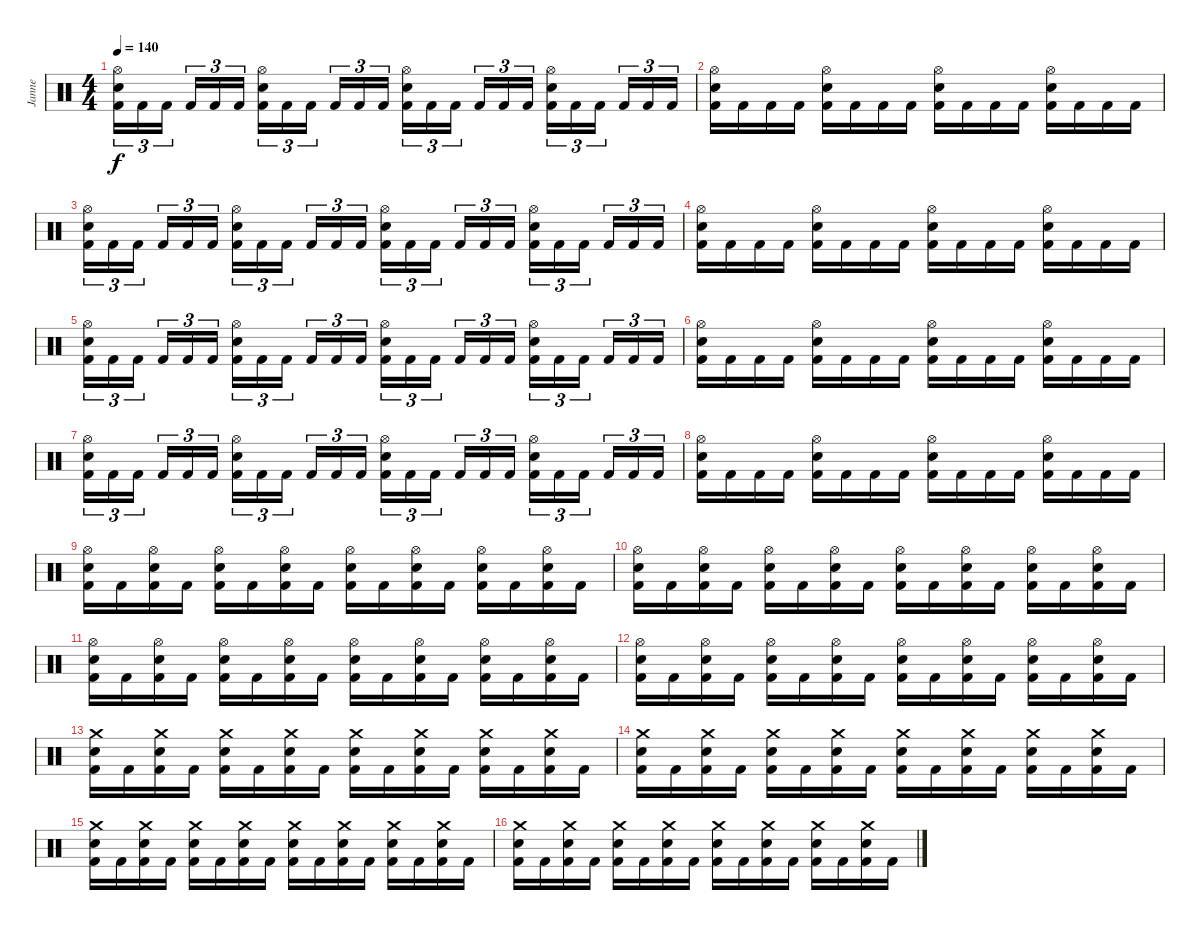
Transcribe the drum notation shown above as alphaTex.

\track ("Janne" "Janne") {instrument percussion}
\staff {score}
\articulation defaults
\ts (4 4)
\tempo 140
\clef neutral
\ks c
("Hi-Hat (open)" "Electric Snare (hit)" "Kick (hit) 2").16{tu (3 2) dy f} "Kick (hit) 2".16{tu (3 2)} "Kick (hit) 2".16{tu (3 2)} "Kick (hit) 2".16{tu (3 2)} "Kick (hit) 2".16{tu (3 2)} "Kick (hit) 2".16{tu (3 2)} ("Hi-Hat (open)" "Electric Snare (hit)" "Kick (hit) 2").16{tu (3 2)} "Kick (hit) 2".16{tu (3 2)} "Kick (hit) 2".16{tu (3 2)} "Kick (hit) 2".16{tu (3 2)} "Kick (hit) 2".16{tu (3 2)} "Kick (hit) 2".16{tu (3 2)} ("Hi-Hat (open)" "Electric Snare (hit)" "Kick (hit) 2").16{tu (3 2)} "Kick (hit) 2".16{tu (3 2)} "Kick (hit) 2".16{tu (3 2)} "Kick (hit) 2".16{tu (3 2)} "Kick (hit) 2".16{tu (3 2)} "Kick (hit) 2".16{tu (3 2)} ("Hi-Hat (open)" "Electric Snare (hit)" "Kick (hit) 2").16{tu (3 2)} "Kick (hit) 2".16{tu (3 2)} "Kick (hit) 2".16{tu (3 2)} "Kick (hit) 2".16{tu (3 2)} "Kick (hit) 2".16{tu (3 2)} "Kick (hit) 2".16{tu (3 2)} |
("Hi-Hat (open)" "Electric Snare (hit)" "Kick (hit) 2").16 "Kick (hit) 2".16 "Kick (hit) 2".16 "Kick (hit) 2".16 ("Hi-Hat (open)" "Electric Snare (hit)" "Kick (hit) 2").16 "Kick (hit) 2".16 "Kick (hit) 2".16 "Kick (hit) 2".16 ("Hi-Hat (open)" "Electric Snare (hit)" "Kick (hit) 2").16 "Kick (hit) 2".16 "Kick (hit) 2".16 "Kick (hit) 2".16 ("Hi-Hat (open)" "Electric Snare (hit)" "Kick (hit) 2").16 "Kick (hit) 2".16 "Kick (hit) 2".16 "Kick (hit) 2".16 |
("Hi-Hat (open)" "Electric Snare (hit)" "Kick (hit) 2").16{tu (3 2)} "Kick (hit) 2".16{tu (3 2)} "Kick (hit) 2".16{tu (3 2)} "Kick (hit) 2".16{tu (3 2)} "Kick (hit) 2".16{tu (3 2)} "Kick (hit) 2".16{tu (3 2)} ("Hi-Hat (open)" "Electric Snare (hit)" "Kick (hit) 2").16{tu (3 2)} "Kick (hit) 2".16{tu (3 2)} "Kick (hit) 2".16{tu (3 2)} "Kick (hit) 2".16{tu (3 2)} "Kick (hit) 2".16{tu (3 2)} "Kick (hit) 2".16{tu (3 2)} ("Hi-Hat (open)" "Electric Snare (hit)" "Kick (hit) 2").16{tu (3 2)} "Kick (hit) 2".16{tu (3 2)} "Kick (hit) 2".16{tu (3 2)} "Kick (hit) 2".16{tu (3 2)} "Kick (hit) 2".16{tu (3 2)} "Kick (hit) 2".16{tu (3 2)} ("Hi-Hat (open)" "Electric Snare (hit)" "Kick (hit) 2").16{tu (3 2)} "Kick (hit) 2".16{tu (3 2)} "Kick (hit) 2".16{tu (3 2)} "Kick (hit) 2".16{tu (3 2)} "Kick (hit) 2".16{tu (3 2)} "Kick (hit) 2".16{tu (3 2)} |
("Hi-Hat (open)" "Electric Snare (hit)" "Kick (hit) 2").16 "Kick (hit) 2".16 "Kick (hit) 2".16 "Kick (hit) 2".16 ("Hi-Hat (open)" "Electric Snare (hit)" "Kick (hit) 2").16 "Kick (hit) 2".16 "Kick (hit) 2".16 "Kick (hit) 2".16 ("Hi-Hat (open)" "Electric Snare (hit)" "Kick (hit) 2").16 "Kick (hit) 2".16 "Kick (hit) 2".16 "Kick (hit) 2".16 ("Hi-Hat (open)" "Electric Snare (hit)" "Kick (hit) 2").16 "Kick (hit) 2".16 "Kick (hit) 2".16 "Kick (hit) 2".16 |
("Hi-Hat (open)" "Electric Snare (hit)" "Kick (hit) 2").16{tu (3 2)} "Kick (hit) 2".16{tu (3 2)} "Kick (hit) 2".16{tu (3 2)} "Kick (hit) 2".16{tu (3 2)} "Kick (hit) 2".16{tu (3 2)} "Kick (hit) 2".16{tu (3 2)} ("Hi-Hat (open)" "Electric Snare (hit)" "Kick (hit) 2").16{tu (3 2)} "Kick (hit) 2".16{tu (3 2)} "Kick (hit) 2".16{tu (3 2)} "Kick (hit) 2".16{tu (3 2)} "Kick (hit) 2".16{tu (3 2)} "Kick (hit) 2".16{tu (3 2)} ("Hi-Hat (open)" "Electric Snare (hit)" "Kick (hit) 2").16{tu (3 2)} "Kick (hit) 2".16{tu (3 2)} "Kick (hit) 2".16{tu (3 2)} "Kick (hit) 2".16{tu (3 2)} "Kick (hit) 2".16{tu (3 2)} "Kick (hit) 2".16{tu (3 2)} ("Hi-Hat (open)" "Electric Snare (hit)" "Kick (hit) 2").16{tu (3 2)} "Kick (hit) 2".16{tu (3 2)} "Kick (hit) 2".16{tu (3 2)} "Kick (hit) 2".16{tu (3 2)} "Kick (hit) 2".16{tu (3 2)} "Kick (hit) 2".16{tu (3 2)} |
("Hi-Hat (open)" "Electric Snare (hit)" "Kick (hit) 2").16 "Kick (hit) 2".16 "Kick (hit) 2".16 "Kick (hit) 2".16 ("Hi-Hat (open)" "Electric Snare (hit)" "Kick (hit) 2").16 "Kick (hit) 2".16 "Kick (hit) 2".16 "Kick (hit) 2".16 ("Hi-Hat (open)" "Electric Snare (hit)" "Kick (hit) 2").16 "Kick (hit) 2".16 "Kick (hit) 2".16 "Kick (hit) 2".16 ("Hi-Hat (open)" "Electric Snare (hit)" "Kick (hit) 2").16 "Kick (hit) 2".16 "Kick (hit) 2".16 "Kick (hit) 2".16 |
("Hi-Hat (open)" "Electric Snare (hit)" "Kick (hit) 2").16{tu (3 2)} "Kick (hit) 2".16{tu (3 2)} "Kick (hit) 2".16{tu (3 2)} "Kick (hit) 2".16{tu (3 2)} "Kick (hit) 2".16{tu (3 2)} "Kick (hit) 2".16{tu (3 2)} ("Hi-Hat (open)" "Electric Snare (hit)" "Kick (hit) 2").16{tu (3 2)} "Kick (hit) 2".16{tu (3 2)} "Kick (hit) 2".16{tu (3 2)} "Kick (hit) 2".16{tu (3 2)} "Kick (hit) 2".16{tu (3 2)} "Kick (hit) 2".16{tu (3 2)} ("Hi-Hat (open)" "Electric Snare (hit)" "Kick (hit) 2").16{tu (3 2)} "Kick (hit) 2".16{tu (3 2)} "Kick (hit) 2".16{tu (3 2)} "Kick (hit) 2".16{tu (3 2)} "Kick (hit) 2".16{tu (3 2)} "Kick (hit) 2".16{tu (3 2)} ("Hi-Hat (open)" "Electric Snare (hit)" "Kick (hit) 2").16{tu (3 2)} "Kick (hit) 2".16{tu (3 2)} "Kick (hit) 2".16{tu (3 2)} "Kick (hit) 2".16{tu (3 2)} "Kick (hit) 2".16{tu (3 2)} "Kick (hit) 2".16{tu (3 2)} |
("Hi-Hat (open)" "Electric Snare (hit)" "Kick (hit) 2").16 "Kick (hit) 2".16 "Kick (hit) 2".16 "Kick (hit) 2".16 ("Hi-Hat (open)" "Electric Snare (hit)" "Kick (hit) 2").16 "Kick (hit) 2".16 "Kick (hit) 2".16 "Kick (hit) 2".16 ("Hi-Hat (open)" "Electric Snare (hit)" "Kick (hit) 2").16 "Kick (hit) 2".16 "Kick (hit) 2".16 "Kick (hit) 2".16 ("Hi-Hat (open)" "Electric Snare (hit)" "Kick (hit) 2").16 "Kick (hit) 2".16 "Kick (hit) 2".16 "Kick (hit) 2".16 |
("Hi-Hat (open)" "Electric Snare (hit)" "Kick (hit) 2").16 "Kick (hit) 2".16 ("Hi-Hat (open)" "Electric Snare (hit)" "Kick (hit) 2").16 "Kick (hit) 2".16 ("Hi-Hat (open)" "Electric Snare (hit)" "Kick (hit) 2").16 "Kick (hit) 2".16 ("Hi-Hat (open)" "Electric Snare (hit)" "Kick (hit) 2").16 "Kick (hit) 2".16 ("Hi-Hat (open)" "Electric Snare (hit)" "Kick (hit) 2").16 "Kick (hit) 2".16 ("Hi-Hat (open)" "Electric Snare (hit)" "Kick (hit) 2").16 "Kick (hit) 2".16 ("Hi-Hat (open)" "Electric Snare (hit)" "Kick (hit) 2").16 "Kick (hit) 2".16 ("Hi-Hat (open)" "Electric Snare (hit)" "Kick (hit) 2").16 "Kick (hit) 2".16 |
("Hi-Hat (open)" "Electric Snare (hit)" "Kick (hit) 2").16 "Kick (hit) 2".16 ("Hi-Hat (open)" "Electric Snare (hit)" "Kick (hit) 2").16 "Kick (hit) 2".16 ("Hi-Hat (open)" "Electric Snare (hit)" "Kick (hit) 2").16 "Kick (hit) 2".16 ("Hi-Hat (open)" "Electric Snare (hit)" "Kick (hit) 2").16 "Kick (hit) 2".16 ("Hi-Hat (open)" "Electric Snare (hit)" "Kick (hit) 2").16 "Kick (hit) 2".16 ("Hi-Hat (open)" "Electric Snare (hit)" "Kick (hit) 2").16 "Kick (hit) 2".16 ("Hi-Hat (open)" "Electric Snare (hit)" "Kick (hit) 2").16 "Kick (hit) 2".16 ("Hi-Hat (open)" "Electric Snare (hit)" "Kick (hit) 2").16 "Kick (hit) 2".16 |
("Hi-Hat (open)" "Electric Snare (hit)" "Kick (hit) 2").16 "Kick (hit) 2".16 ("Hi-Hat (open)" "Electric Snare (hit)" "Kick (hit) 2").16 "Kick (hit) 2".16 ("Hi-Hat (open)" "Electric Snare (hit)" "Kick (hit) 2").16 "Kick (hit) 2".16 ("Hi-Hat (open)" "Electric Snare (hit)" "Kick (hit) 2").16 "Kick (hit) 2".16 ("Hi-Hat (open)" "Electric Snare (hit)" "Kick (hit) 2").16 "Kick (hit) 2".16 ("Hi-Hat (open)" "Electric Snare (hit)" "Kick (hit) 2").16 "Kick (hit) 2".16 ("Hi-Hat (open)" "Electric Snare (hit)" "Kick (hit) 2").16 "Kick (hit) 2".16 ("Hi-Hat (open)" "Electric Snare (hit)" "Kick (hit) 2").16 "Kick (hit) 2".16 |
("Hi-Hat (open)" "Electric Snare (hit)" "Kick (hit) 2").16 "Kick (hit) 2".16 ("Hi-Hat (open)" "Electric Snare (hit)" "Kick (hit) 2").16 "Kick (hit) 2".16 ("Hi-Hat (open)" "Electric Snare (hit)" "Kick (hit) 2").16 "Kick (hit) 2".16 ("Hi-Hat (open)" "Electric Snare (hit)" "Kick (hit) 2").16 "Kick (hit) 2".16 ("Hi-Hat (open)" "Electric Snare (hit)" "Kick (hit) 2").16 "Kick (hit) 2".16 ("Hi-Hat (open)" "Electric Snare (hit)" "Kick (hit) 2").16 "Kick (hit) 2".16 ("Hi-Hat (open)" "Electric Snare (hit)" "Kick (hit) 2").16 "Kick (hit) 2".16 ("Hi-Hat (open)" "Electric Snare (hit)" "Kick (hit) 2").16 "Kick (hit) 2".16 |
("Crash medium (hit)" "Electric Snare (hit)" "Kick (hit) 2").16 "Kick (hit) 2".16 ("Crash medium (hit)" "Electric Snare (hit)" "Kick (hit) 2").16 "Kick (hit) 2".16 ("Crash medium (hit)" "Electric Snare (hit)" "Kick (hit) 2").16 "Kick (hit) 2".16 ("Crash medium (hit)" "Electric Snare (hit)" "Kick (hit) 2").16 "Kick (hit) 2".16 ("Crash medium (hit)" "Electric Snare (hit)" "Kick (hit) 2").16 "Kick (hit) 2".16 ("Crash medium (hit)" "Electric Snare (hit)" "Kick (hit) 2").16 "Kick (hit) 2".16 ("Crash medium (hit)" "Electric Snare (hit)" "Kick (hit) 2").16 "Kick (hit) 2".16 ("Crash medium (hit)" "Electric Snare (hit)" "Kick (hit) 2").16 "Kick (hit) 2".16 |
("Crash medium (hit)" "Electric Snare (hit)" "Kick (hit) 2").16 "Kick (hit) 2".16 ("Crash medium (hit)" "Electric Snare (hit)" "Kick (hit) 2").16 "Kick (hit) 2".16 ("Crash medium (hit)" "Electric Snare (hit)" "Kick (hit) 2").16 "Kick (hit) 2".16 ("Crash medium (hit)" "Electric Snare (hit)" "Kick (hit) 2").16 "Kick (hit) 2".16 ("Crash medium (hit)" "Electric Snare (hit)" "Kick (hit) 2").16 "Kick (hit) 2".16 ("Crash medium (hit)" "Electric Snare (hit)" "Kick (hit) 2").16 "Kick (hit) 2".16 ("Crash medium (hit)" "Electric Snare (hit)" "Kick (hit) 2").16 "Kick (hit) 2".16 ("Crash medium (hit)" "Electric Snare (hit)" "Kick (hit) 2").16 "Kick (hit) 2".16 |
("Crash medium (hit)" "Electric Snare (hit)" "Kick (hit) 2").16 "Kick (hit) 2".16 ("Crash medium (hit)" "Electric Snare (hit)" "Kick (hit) 2").16 "Kick (hit) 2".16 ("Crash medium (hit)" "Electric Snare (hit)" "Kick (hit) 2").16 "Kick (hit) 2".16 ("Crash medium (hit)" "Electric Snare (hit)" "Kick (hit) 2").16 "Kick (hit) 2".16 ("Crash medium (hit)" "Electric Snare (hit)" "Kick (hit) 2").16 "Kick (hit) 2".16 ("Crash medium (hit)" "Electric Snare (hit)" "Kick (hit) 2").16 "Kick (hit) 2".16 ("Crash medium (hit)" "Electric Snare (hit)" "Kick (hit) 2").16 "Kick (hit) 2".16 ("Crash medium (hit)" "Electric Snare (hit)" "Kick (hit) 2").16 "Kick (hit) 2".16 |
("Crash medium (hit)" "Electric Snare (hit)" "Kick (hit) 2").16 "Kick (hit) 2".16 ("Crash medium (hit)" "Electric Snare (hit)" "Kick (hit) 2").16 "Kick (hit) 2".16 ("Crash medium (hit)" "Electric Snare (hit)" "Kick (hit) 2").16 "Kick (hit) 2".16 ("Crash medium (hit)" "Electric Snare (hit)" "Kick (hit) 2").16 "Kick (hit) 2".16 ("Crash medium (hit)" "Electric Snare (hit)" "Kick (hit) 2").16 "Kick (hit) 2".16 ("Crash medium (hit)" "Electric Snare (hit)" "Kick (hit) 2").16 "Kick (hit) 2".16 ("Crash medium (hit)" "Electric Snare (hit)" "Kick (hit) 2").16 "Kick (hit) 2".16 ("Crash medium (hit)" "Electric Snare (hit)" "Kick (hit) 2").16 "Kick (hit) 2".16
